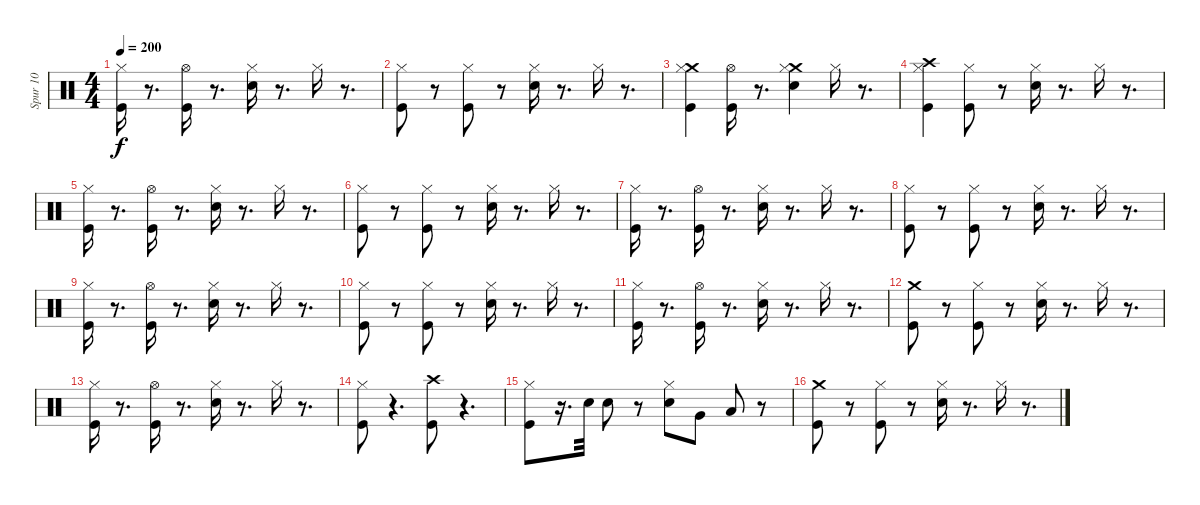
\track ("Spur 10" "Spur 10") {instrument percussion}
\staff {score}
\articulation defaults
\ts (4 4)
\tempo 200
\clef neutral
\ks c
("Kick (hit)" "Hi-Hat (closed)").16{dy f} r.8{d} ("Kick (hit)" "Hi-Hat (open)").16 r.8{d} ("Snare (hit) 2" "Hi-Hat (closed)").16 r.8{d} "Hi-Hat (closed)".16 r.8{d} |
("Hi-Hat (closed)" "Kick (hit)").8 r.8 ("Kick (hit)" "Hi-Hat (closed)").8 r.8 ("Snare (hit) 2" "Hi-Hat (closed)").16 r.8{d} "Hi-Hat (closed)".16 r.8{d} |
("Crash medium (hit)" "Kick (hit)" "Hi-Hat (closed)").4 ("Kick (hit)" "Hi-Hat (open)").16 r.8{d} ("Crash medium (hit)" "Snare (hit) 2" "Hi-Hat (closed)").4 "Hi-Hat (closed)".16 r.8{d} |
("Crash high (hit)" "Hi-Hat (closed)" "Kick (hit)").4 ("Kick (hit)" "Hi-Hat (closed)").8 r.8 ("Snare (hit) 2" "Hi-Hat (closed)").16 r.8{d} "Hi-Hat (closed)".16 r.8{d} |
("Kick (hit)" "Hi-Hat (closed)").16 r.8{d} ("Kick (hit)" "Hi-Hat (open)").16 r.8{d} ("Snare (hit) 2" "Hi-Hat (closed)").16 r.8{d} "Hi-Hat (closed)".16 r.8{d} |
("Hi-Hat (closed)" "Kick (hit)").8 r.8 ("Kick (hit)" "Hi-Hat (closed)").8 r.8 ("Snare (hit) 2" "Hi-Hat (closed)").16 r.8{d} "Hi-Hat (closed)".16 r.8{d} |
("Kick (hit)" "Hi-Hat (closed)").16 r.8{d} ("Kick (hit)" "Hi-Hat (open)").16 r.8{d} ("Snare (hit) 2" "Hi-Hat (closed)").16 r.8{d} "Hi-Hat (closed)".16 r.8{d} |
("Hi-Hat (closed)" "Kick (hit)").8 r.8 ("Kick (hit)" "Hi-Hat (closed)").8 r.8 ("Snare (hit) 2" "Hi-Hat (closed)").16 r.8{d} "Hi-Hat (closed)".16 r.8{d} |
("Kick (hit)" "Hi-Hat (closed)").16 r.8{d} ("Kick (hit)" "Hi-Hat (open)").16 r.8{d} ("Snare (hit) 2" "Hi-Hat (closed)").16 r.8{d} "Hi-Hat (closed)".16 r.8{d} |
("Hi-Hat (closed)" "Kick (hit)").8 r.8 ("Kick (hit)" "Hi-Hat (closed)").8 r.8 ("Snare (hit) 2" "Hi-Hat (closed)").16 r.8{d} "Hi-Hat (closed)".16 r.8{d} |
("Kick (hit)" "Hi-Hat (closed)").16 r.8{d} ("Kick (hit)" "Hi-Hat (open)").16 r.8{d} ("Snare (hit) 2" "Hi-Hat (closed)").16 r.8{d} "Hi-Hat (closed)".16 r.8{d} |
("Crash medium (hit)" "Kick (hit)").8 r.8 ("Kick (hit)" "Hi-Hat (closed)").8 r.8 ("Snare (hit) 2" "Hi-Hat (closed)").16 r.8{d} "Hi-Hat (closed)".16 r.8{d} |
("Kick (hit)" "Hi-Hat (closed)").16 r.8{d} ("Kick (hit)" "Hi-Hat (open)").16 r.8{d} ("Snare (hit) 2" "Hi-Hat (closed)").16 r.8{d} "Hi-Hat (closed)".16 r.8{d} |
("Hi-Hat (closed)" "Kick (hit)").8 r.4{d} ("Kick (hit)" "Crash high (hit)").8 r.4{d} |
("Kick (hit)" "Hi-Hat (closed)").8 r.16{d} "Snare (hit) 2".32 "Snare (hit) 2".8 r.8 ("Hi-Hat (closed)" "Snare (hit) 2").8 "Very Low Tom (hit)".8 "Low Tom (hit)".8 r.8 |
("Crash medium (hit)" "Kick (hit)").8 r.8 ("Kick (hit)" "Hi-Hat (closed)").8 r.8 ("Snare (hit) 2" "Hi-Hat (closed)").16 r.8{d} "Hi-Hat (closed)".16 r.8{d}
